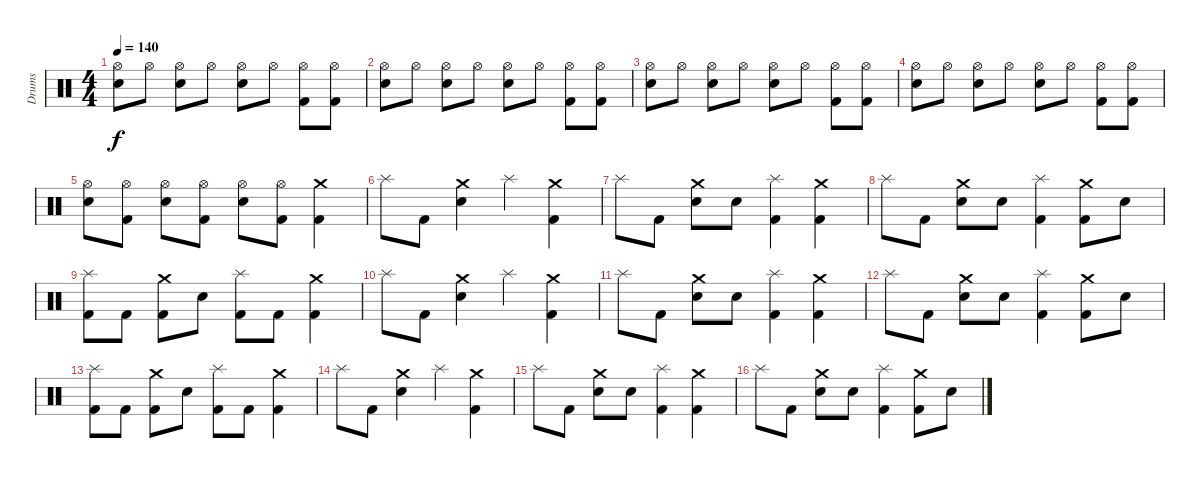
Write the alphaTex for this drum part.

\track ("Drums" "Drums") {instrument percussion}
\staff {score}
\articulation defaults
\ts (4 4)
\tempo 140
\clef neutral
\ks c
("Hi-Hat (open)" "Snare (hit) 2").8{dy f} "Hi-Hat (open)".8 ("Snare (hit) 2" "Hi-Hat (open)").8 "Hi-Hat (open)".8 ("Snare (hit) 2" "Hi-Hat (open)").8 "Hi-Hat (open)".8 ("Hi-Hat (open)" "Kick (hit) 2").8 ("Hi-Hat (open)" "Kick (hit) 2").8 |
("Hi-Hat (open)" "Snare (hit) 2").8 "Hi-Hat (open)".8 ("Snare (hit) 2" "Hi-Hat (open)").8 "Hi-Hat (open)".8 ("Snare (hit) 2" "Hi-Hat (open)").8 "Hi-Hat (open)".8 ("Hi-Hat (open)" "Kick (hit) 2").8 ("Hi-Hat (open)" "Kick (hit) 2").8 |
("Hi-Hat (open)" "Snare (hit) 2").8 "Hi-Hat (open)".8 ("Snare (hit) 2" "Hi-Hat (open)").8 "Hi-Hat (open)".8 ("Snare (hit) 2" "Hi-Hat (open)").8 "Hi-Hat (open)".8 ("Hi-Hat (open)" "Kick (hit) 2").8 ("Hi-Hat (open)" "Kick (hit) 2").8 |
("Hi-Hat (open)" "Snare (hit) 2").8 "Hi-Hat (open)".8 ("Snare (hit) 2" "Hi-Hat (open)").8 "Hi-Hat (open)".8 ("Snare (hit) 2" "Hi-Hat (open)").8 "Hi-Hat (open)".8 ("Hi-Hat (open)" "Kick (hit) 2").8 ("Hi-Hat (open)" "Kick (hit) 2").8 |
("Hi-Hat (open)" "Snare (hit) 2").8 ("Hi-Hat (open)" "Kick (hit) 2").8 ("Snare (hit) 2" "Hi-Hat (open)").8 ("Hi-Hat (open)" "Kick (hit) 2").8 ("Snare (hit) 2" "Hi-Hat (open)").8 ("Hi-Hat (open)" "Kick (hit) 2").8 ("Crash medium (hit)" "Kick (hit) 2").4 |
"Splash (hit)".8 "Kick (hit) 2".8 ("Crash medium (hit)" "Snare (hit) 2").4 "Splash (hit)".4 ("Crash medium (hit)" "Kick (hit) 2").4 |
"Splash (hit)".8 "Kick (hit) 2".8 ("Crash medium (hit)" "Snare (hit) 2").8 "Snare (hit) 2".8 ("Splash (hit)" "Kick (hit) 2").4 ("Crash medium (hit)" "Kick (hit) 2").4 |
"Splash (hit)".8 "Kick (hit) 2".8 ("Crash medium (hit)" "Snare (hit) 2").8 "Snare (hit) 2".8 ("Splash (hit)" "Kick (hit) 2").4 ("Crash medium (hit)" "Kick (hit) 2").8 "Snare (hit) 2".8 |
("Splash (hit)" "Kick (hit) 2").8 "Kick (hit) 2".8 ("Crash medium (hit)" "Kick (hit) 2").8 "Snare (hit) 2".8 ("Splash (hit)" "Kick (hit) 2").8 "Kick (hit) 2".8 ("Crash medium (hit)" "Kick (hit) 2").4 |
"Splash (hit)".8 "Kick (hit) 2".8 ("Crash medium (hit)" "Snare (hit) 2").4 "Splash (hit)".4 ("Crash medium (hit)" "Kick (hit) 2").4 |
"Splash (hit)".8 "Kick (hit) 2".8 ("Crash medium (hit)" "Snare (hit) 2").8 "Snare (hit) 2".8 ("Splash (hit)" "Kick (hit) 2").4 ("Crash medium (hit)" "Kick (hit) 2").4 |
"Splash (hit)".8 "Kick (hit) 2".8 ("Crash medium (hit)" "Snare (hit) 2").8 "Snare (hit) 2".8 ("Splash (hit)" "Kick (hit) 2").4 ("Crash medium (hit)" "Kick (hit) 2").8 "Snare (hit) 2".8 |
("Splash (hit)" "Kick (hit) 2").8 "Kick (hit) 2".8 ("Crash medium (hit)" "Kick (hit) 2").8 "Snare (hit) 2".8 ("Splash (hit)" "Kick (hit) 2").8 "Kick (hit) 2".8 ("Crash medium (hit)" "Kick (hit) 2").4 |
"Splash (hit)".8 "Kick (hit) 2".8 ("Crash medium (hit)" "Snare (hit) 2").4 "Splash (hit)".4 ("Crash medium (hit)" "Kick (hit) 2").4 |
"Splash (hit)".8 "Kick (hit) 2".8 ("Crash medium (hit)" "Snare (hit) 2").8 "Snare (hit) 2".8 ("Splash (hit)" "Kick (hit) 2").4 ("Crash medium (hit)" "Kick (hit) 2").4 |
"Splash (hit)".8 "Kick (hit) 2".8 ("Crash medium (hit)" "Snare (hit) 2").8 "Snare (hit) 2".8 ("Splash (hit)" "Kick (hit) 2").4 ("Crash medium (hit)" "Kick (hit) 2").8 "Snare (hit) 2".8
